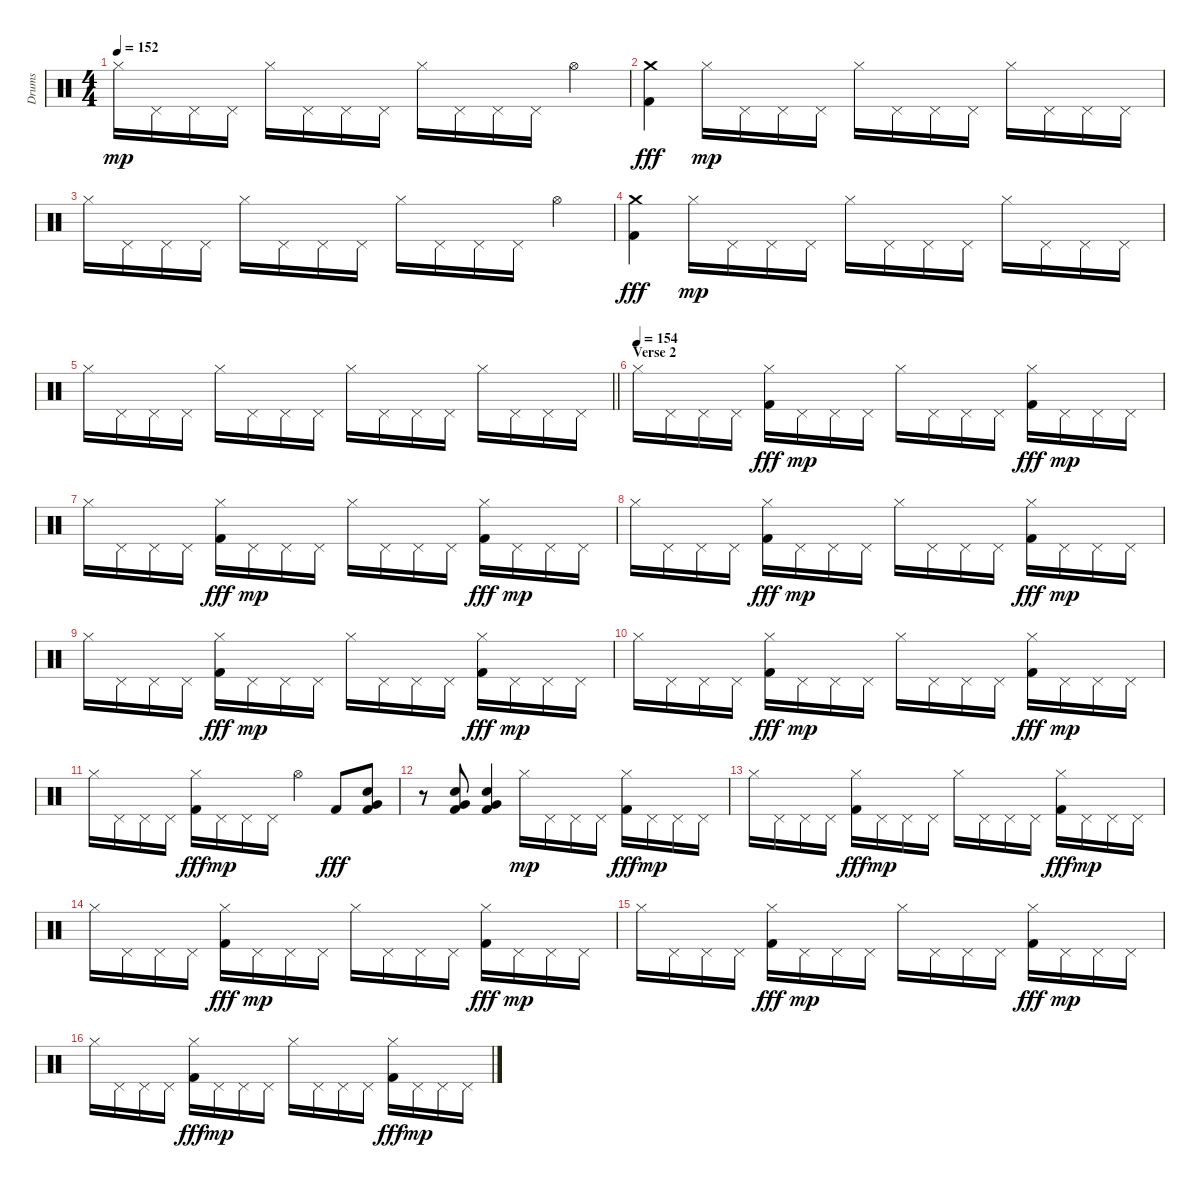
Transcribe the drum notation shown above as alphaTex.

\track ("Drums" "Drums") {instrument percussion}
\staff {score}
\articulation defaults
\ts (4 4)
\tempo 152
\clef neutral
\ks c "Hi-Hat (closed)".16{dy mp} "Pedal Hi-Hat (hit)".16 "Pedal Hi-Hat (hit)".16 "Pedal Hi-Hat (hit)".16 "Hi-Hat (closed)".16 "Pedal Hi-Hat (hit)".16 "Pedal Hi-Hat (hit)".16 "Pedal Hi-Hat (hit)".16 "Hi-Hat (closed)".16 "Pedal Hi-Hat (hit)".16 "Pedal Hi-Hat (hit)".16 "Pedal Hi-Hat (hit)".16 "Hi-Hat (open)".4
|
("Crash medium (hit)" "Kick (hit) 2").4{dy fff} "Hi-Hat (closed)".16{dy mp} "Pedal Hi-Hat (hit)".16 "Pedal Hi-Hat (hit)".16 "Pedal Hi-Hat (hit)".16 "Hi-Hat (closed)".16 "Pedal Hi-Hat (hit)".16 "Pedal Hi-Hat (hit)".16 "Pedal Hi-Hat (hit)".16 "Hi-Hat (closed)".16 "Pedal Hi-Hat (hit)".16 "Pedal Hi-Hat (hit)".16 "Pedal Hi-Hat (hit)".16 |
"Hi-Hat (closed)".16 "Pedal Hi-Hat (hit)".16 "Pedal Hi-Hat (hit)".16 "Pedal Hi-Hat (hit)".16 "Hi-Hat (closed)".16 "Pedal Hi-Hat (hit)".16 "Pedal Hi-Hat (hit)".16 "Pedal Hi-Hat (hit)".16 "Hi-Hat (closed)".16 "Pedal Hi-Hat (hit)".16 "Pedal Hi-Hat (hit)".16 "Pedal Hi-Hat (hit)".16 "Hi-Hat (open)".4 |
("Crash medium (hit)" "Kick (hit) 2").4{dy fff} "Hi-Hat (closed)".16{dy mp} "Pedal Hi-Hat (hit)".16 "Pedal Hi-Hat (hit)".16 "Pedal Hi-Hat (hit)".16 "Hi-Hat (closed)".16 "Pedal Hi-Hat (hit)".16 "Pedal Hi-Hat (hit)".16 "Pedal Hi-Hat (hit)".16 "Hi-Hat (closed)".16 "Pedal Hi-Hat (hit)".16 "Pedal Hi-Hat (hit)".16 "Pedal Hi-Hat (hit)".16 |
\barLineRight lightlight "Hi-Hat (closed)".16 "Pedal Hi-Hat (hit)".16 "Pedal Hi-Hat (hit)".16 "Pedal Hi-Hat (hit)".16 "Hi-Hat (closed)".16 "Pedal Hi-Hat (hit)".16 "Pedal Hi-Hat (hit)".16 "Pedal Hi-Hat (hit)".16 "Hi-Hat (closed)".16 "Pedal Hi-Hat (hit)".16 "Pedal Hi-Hat (hit)".16 "Pedal Hi-Hat (hit)".16 "Hi-Hat (closed)".16 "Pedal Hi-Hat (hit)".16 "Pedal Hi-Hat (hit)".16 "Pedal Hi-Hat (hit)".16
|
\section ("" "Verse 2")
\tempo (154)
"Hi-Hat (closed)".16 "Pedal Hi-Hat (hit)".16 "Pedal Hi-Hat (hit)".16 "Pedal Hi-Hat (hit)".16 ("Hi-Hat (closed)" "Kick (hit) 2").16{dy fff} "Pedal Hi-Hat (hit)".16{dy mp} "Pedal Hi-Hat (hit)".16 "Pedal Hi-Hat (hit)".16 "Hi-Hat (closed)".16 "Pedal Hi-Hat (hit)".16 "Pedal Hi-Hat (hit)".16 "Pedal Hi-Hat (hit)".16 ("Hi-Hat (closed)" "Kick (hit) 2").16{dy fff} "Pedal Hi-Hat (hit)".16{dy mp} "Pedal Hi-Hat (hit)".16 "Pedal Hi-Hat (hit)".16 |
"Hi-Hat (closed)".16 "Pedal Hi-Hat (hit)".16 "Pedal Hi-Hat (hit)".16 "Pedal Hi-Hat (hit)".16 ("Hi-Hat (closed)" "Kick (hit) 2").16{dy fff} "Pedal Hi-Hat (hit)".16{dy mp} "Pedal Hi-Hat (hit)".16 "Pedal Hi-Hat (hit)".16 "Hi-Hat (closed)".16 "Pedal Hi-Hat (hit)".16 "Pedal Hi-Hat (hit)".16 "Pedal Hi-Hat (hit)".16 ("Hi-Hat (closed)" "Kick (hit) 2").16{dy fff} "Pedal Hi-Hat (hit)".16{dy mp} "Pedal Hi-Hat (hit)".16 "Pedal Hi-Hat (hit)".16 |
"Hi-Hat (closed)".16 "Pedal Hi-Hat (hit)".16 "Pedal Hi-Hat (hit)".16 "Pedal Hi-Hat (hit)".16 ("Hi-Hat (closed)" "Kick (hit) 2").16{dy fff} "Pedal Hi-Hat (hit)".16{dy mp} "Pedal Hi-Hat (hit)".16 "Pedal Hi-Hat (hit)".16 "Hi-Hat (closed)".16 "Pedal Hi-Hat (hit)".16 "Pedal Hi-Hat (hit)".16 "Pedal Hi-Hat (hit)".16 ("Hi-Hat (closed)" "Kick (hit) 2").16{dy fff} "Pedal Hi-Hat (hit)".16{dy mp} "Pedal Hi-Hat (hit)".16 "Pedal Hi-Hat (hit)".16 |
"Hi-Hat (closed)".16 "Pedal Hi-Hat (hit)".16 "Pedal Hi-Hat (hit)".16 "Pedal Hi-Hat (hit)".16 ("Hi-Hat (closed)" "Kick (hit) 2").16{dy fff} "Pedal Hi-Hat (hit)".16{dy mp} "Pedal Hi-Hat (hit)".16 "Pedal Hi-Hat (hit)".16 "Hi-Hat (closed)".16 "Pedal Hi-Hat (hit)".16 "Pedal Hi-Hat (hit)".16 "Pedal Hi-Hat (hit)".16 ("Hi-Hat (closed)" "Kick (hit) 2").16{dy fff} "Pedal Hi-Hat (hit)".16{dy mp} "Pedal Hi-Hat (hit)".16 "Pedal Hi-Hat (hit)".16 |
"Hi-Hat (closed)".16 "Pedal Hi-Hat (hit)".16 "Pedal Hi-Hat (hit)".16 "Pedal Hi-Hat (hit)".16 ("Hi-Hat (closed)" "Kick (hit) 2").16{dy fff} "Pedal Hi-Hat (hit)".16{dy mp} "Pedal Hi-Hat (hit)".16 "Pedal Hi-Hat (hit)".16 "Hi-Hat (closed)".16 "Pedal Hi-Hat (hit)".16 "Pedal Hi-Hat (hit)".16 "Pedal Hi-Hat (hit)".16 ("Hi-Hat (closed)" "Kick (hit) 2").16{dy fff} "Pedal Hi-Hat (hit)".16{dy mp} "Pedal Hi-Hat (hit)".16 "Pedal Hi-Hat (hit)".16 |
"Hi-Hat (closed)".16 "Pedal Hi-Hat (hit)".16 "Pedal Hi-Hat (hit)".16 "Pedal Hi-Hat (hit)".16 ("Hi-Hat (closed)" "Kick (hit) 2").16{dy fff} "Pedal Hi-Hat (hit)".16{dy mp} "Pedal Hi-Hat (hit)".16 "Pedal Hi-Hat (hit)".16 "Hi-Hat (open)".4 "Kick (hit) 2".8{dy fff} ("Electric Snare (hit)" "Very Low Tom (hit)" "Kick (hit) 2").8 |
r.8 ("Electric Snare (hit)" "Very Low Tom (hit)" "Kick (hit) 2").8 ("Electric Snare (hit)" "Very Low Tom (hit)" "Kick (hit) 2").4 "Hi-Hat (closed)".16{dy mp} "Pedal Hi-Hat (hit)".16 "Pedal Hi-Hat (hit)".16 "Pedal Hi-Hat (hit)".16 ("Hi-Hat (closed)" "Kick (hit) 2").16{dy fff} "Pedal Hi-Hat (hit)".16{dy mp} "Pedal Hi-Hat (hit)".16 "Pedal Hi-Hat (hit)".16 |
"Hi-Hat (closed)".16 "Pedal Hi-Hat (hit)".16 "Pedal Hi-Hat (hit)".16 "Pedal Hi-Hat (hit)".16 ("Hi-Hat (closed)" "Kick (hit) 2").16{dy fff} "Pedal Hi-Hat (hit)".16{dy mp} "Pedal Hi-Hat (hit)".16 "Pedal Hi-Hat (hit)".16 "Hi-Hat (closed)".16 "Pedal Hi-Hat (hit)".16 "Pedal Hi-Hat (hit)".16 "Pedal Hi-Hat (hit)".16 ("Hi-Hat (closed)" "Kick (hit) 2").16{dy fff} "Pedal Hi-Hat (hit)".16{dy mp} "Pedal Hi-Hat (hit)".16 "Pedal Hi-Hat (hit)".16 |
"Hi-Hat (closed)".16 "Pedal Hi-Hat (hit)".16 "Pedal Hi-Hat (hit)".16 "Pedal Hi-Hat (hit)".16 ("Hi-Hat (closed)" "Kick (hit) 2").16{dy fff} "Pedal Hi-Hat (hit)".16{dy mp} "Pedal Hi-Hat (hit)".16 "Pedal Hi-Hat (hit)".16 "Hi-Hat (closed)".16 "Pedal Hi-Hat (hit)".16 "Pedal Hi-Hat (hit)".16 "Pedal Hi-Hat (hit)".16 ("Hi-Hat (closed)" "Kick (hit) 2").16{dy fff} "Pedal Hi-Hat (hit)".16{dy mp} "Pedal Hi-Hat (hit)".16 "Pedal Hi-Hat (hit)".16 |
"Hi-Hat (closed)".16 "Pedal Hi-Hat (hit)".16 "Pedal Hi-Hat (hit)".16 "Pedal Hi-Hat (hit)".16 ("Hi-Hat (closed)" "Kick (hit) 2").16{dy fff} "Pedal Hi-Hat (hit)".16{dy mp} "Pedal Hi-Hat (hit)".16 "Pedal Hi-Hat (hit)".16 "Hi-Hat (closed)".16 "Pedal Hi-Hat (hit)".16 "Pedal Hi-Hat (hit)".16 "Pedal Hi-Hat (hit)".16 ("Hi-Hat (closed)" "Kick (hit) 2").16{dy fff} "Pedal Hi-Hat (hit)".16{dy mp} "Pedal Hi-Hat (hit)".16 "Pedal Hi-Hat (hit)".16 |
"Hi-Hat (closed)".16 "Pedal Hi-Hat (hit)".16 "Pedal Hi-Hat (hit)".16 "Pedal Hi-Hat (hit)".16 ("Hi-Hat (closed)" "Kick (hit) 2").16{dy fff} "Pedal Hi-Hat (hit)".16{dy mp} "Pedal Hi-Hat (hit)".16 "Pedal Hi-Hat (hit)".16 "Hi-Hat (closed)".16 "Pedal Hi-Hat (hit)".16 "Pedal Hi-Hat (hit)".16 "Pedal Hi-Hat (hit)".16 ("Hi-Hat (closed)" "Kick (hit) 2").16{dy fff} "Pedal Hi-Hat (hit)".16{dy mp} "Pedal Hi-Hat (hit)".16 "Pedal Hi-Hat (hit)".16
